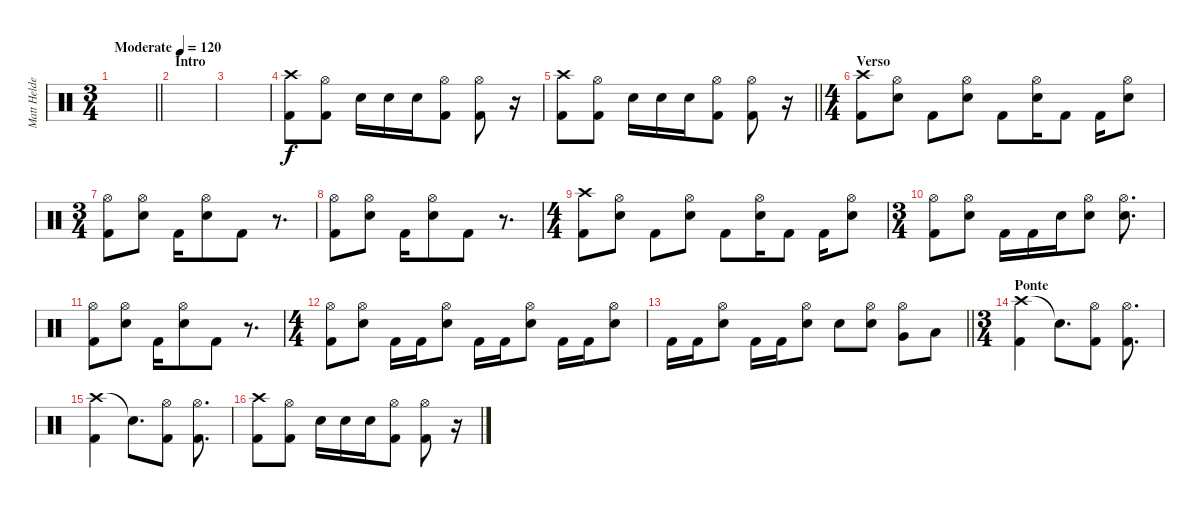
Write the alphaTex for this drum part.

\track ("Matt Helders" "Matt Helde") {instrument percussion}
\staff {score}
\articulation defaults
\ts (3 4)
\tempo (120 "Moderate")
\clef neutral
\barLineRight lightlight
\ks c
|
\section ("" "Intro")
|
|
("Crash high (hit)" "Kick (hit) 2").8 ("Hi-Hat (open)" "Kick (hit) 2").8 "Electric Snare (hit)".16 "Electric Snare (hit)".16 "Electric Snare (hit)".16 ("Hi-Hat (open)" "Kick (hit) 2").8 ("Hi-Hat (open)" "Kick (hit) 2").8 r.16 |
\barLineRight lightlight
("Crash high (hit)" "Kick (hit) 2").8 ("Hi-Hat (open)" "Kick (hit) 2").8 "Electric Snare (hit)".16 "Electric Snare (hit)".16 "Electric Snare (hit)".16 ("Hi-Hat (open)" "Kick (hit) 2").8 ("Hi-Hat (open)" "Kick (hit) 2").8 r.16 |
\ts (4 4)
\section ("" "Verso")
("Crash high (hit)" "Kick (hit) 2").8 ("Hi-Hat (open)" "Electric Snare (hit)").8 "Kick (hit) 2".8 ("Hi-Hat (open)" "Electric Snare (hit)").8 "Kick (hit) 2".8 ("Hi-Hat (open)" "Electric Snare (hit)").16 "Kick (hit) 2".8 "Kick (hit) 2".16 ("Hi-Hat (open)" "Electric Snare (hit)").8 |
\ts (3 4)
("Hi-Hat (open)" "Kick (hit) 2").8 ("Hi-Hat (open)" "Electric Snare (hit)").8 "Kick (hit) 2".16 ("Hi-Hat (open)" "Electric Snare (hit)").8 "Kick (hit) 2".8 r.8{d} |
("Hi-Hat (open)" "Kick (hit) 2").8 ("Hi-Hat (open)" "Electric Snare (hit)").8 "Kick (hit) 2".16 ("Hi-Hat (open)" "Electric Snare (hit)").8 "Kick (hit) 2".8 r.8{d} |
\ts (4 4)
("Crash high (hit)" "Kick (hit) 2").8 ("Hi-Hat (open)" "Electric Snare (hit)").8 "Kick (hit) 2".8 ("Hi-Hat (open)" "Electric Snare (hit)").8 "Kick (hit) 2".8 ("Hi-Hat (open)" "Electric Snare (hit)").16 "Kick (hit) 2".8 "Kick (hit) 2".16 ("Hi-Hat (open)" "Electric Snare (hit)").8 |
\ts (3 4)
("Hi-Hat (open)" "Kick (hit) 2").8 ("Hi-Hat (open)" "Electric Snare (hit)").8 "Kick (hit) 2".16 "Kick (hit) 2".16 "Electric Snare (hit)".16 ("Hi-Hat (open)" "Electric Snare (hit)").8 ("Hi-Hat (open)" "Electric Snare (hit)").8{d} |
("Hi-Hat (open)" "Kick (hit) 2").8 ("Hi-Hat (open)" "Electric Snare (hit)").8 "Kick (hit) 2".16 ("Hi-Hat (open)" "Electric Snare (hit)").8 "Kick (hit) 2".8 r.8{d} |
\ts (4 4)
("Hi-Hat (open)" "Kick (hit) 2").8 ("Hi-Hat (open)" "Electric Snare (hit)").8 "Kick (hit) 2".16 "Kick (hit) 2".16 ("Hi-Hat (open)" "Electric Snare (hit)").8 "Kick (hit) 2".16 "Kick (hit) 2".16 ("Hi-Hat (open)" "Electric Snare (hit)").8 "Kick (hit) 2".16 "Kick (hit) 2".16 ("Hi-Hat (open)" "Electric Snare (hit)").8 |
\barLineRight lightlight "Kick (hit) 2".16 "Kick (hit) 2".16
("Hi-Hat (open)" "Electric Snare (hit)").8 "Kick (hit) 2".16 "Kick (hit) 2".16 ("Hi-Hat (open)" "Electric Snare (hit)").8 "Electric Snare (hit)".8 ("Hi-Hat (open)" "Electric Snare (hit)").8 ("Hi-Hat (open)" "Very Low Tom (hit)").8 "Low Floor Tom (hit)".8 |
\ts (3 4)
\section ("" "Ponte")
("Crash high (hit)" "Kick (hit) 2").4 "Snare (hit)"{t}.8{d} ("Hi-Hat (open)" "Kick (hit) 2").8 ("Hi-Hat (open)" "Kick (hit) 2").8{d} |
("Crash high (hit)" "Kick (hit) 2").4 "Snare (hit)"{t}.8{d} ("Hi-Hat (open)" "Kick (hit) 2").8 ("Hi-Hat (open)" "Kick (hit) 2").8{d} |
("Crash high (hit)" "Kick (hit) 2").8 ("Hi-Hat (open)" "Kick (hit) 2").8 "Electric Snare (hit)".16 "Electric Snare (hit)".16 "Electric Snare (hit)".16 ("Hi-Hat (open)" "Kick (hit) 2").8 ("Hi-Hat (open)" "Kick (hit) 2").8 r.16
